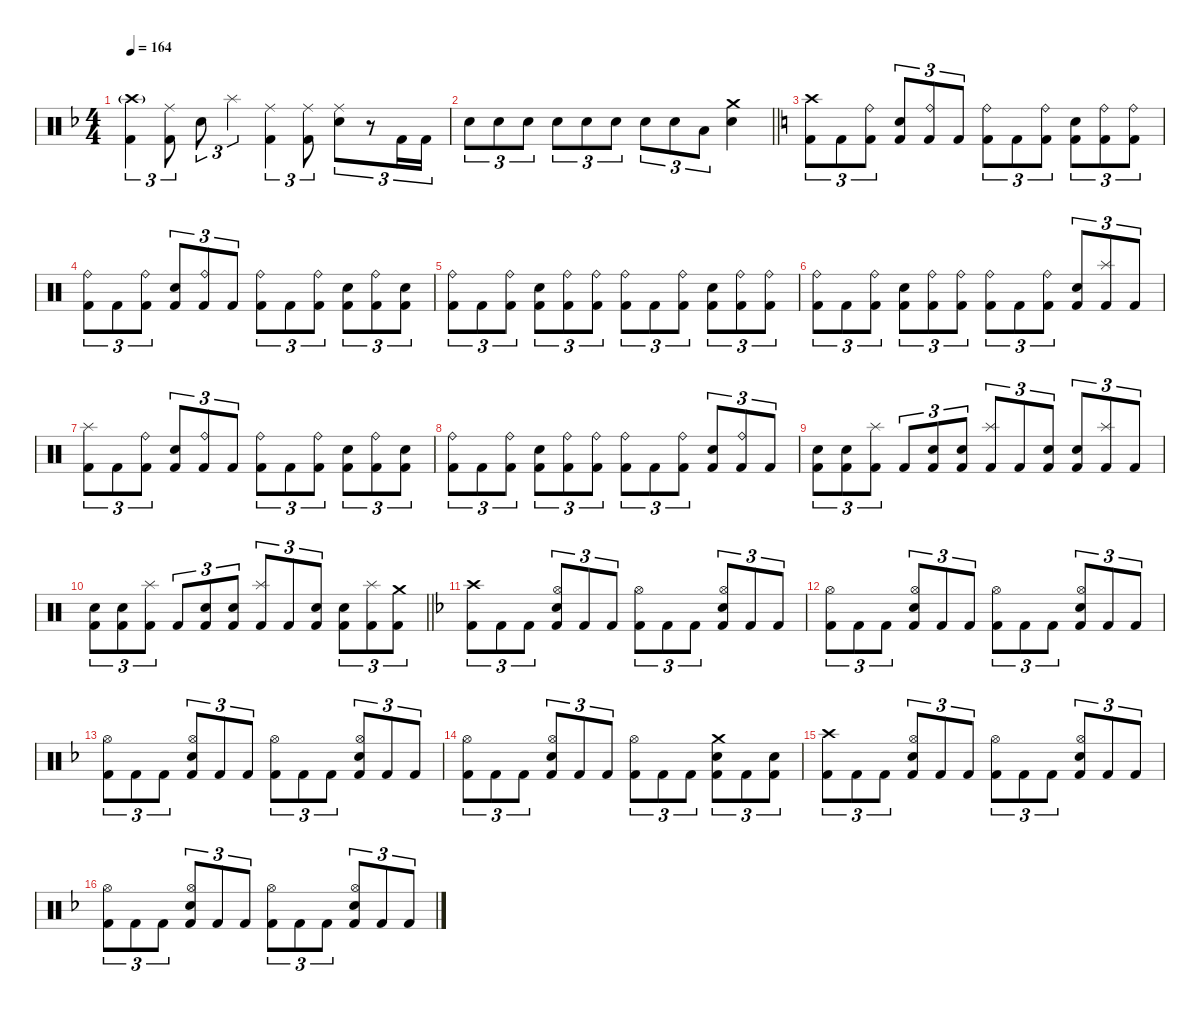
\defaultSystemsLayout 4
\hideDynamics
\bracketExtendMode nobrackets
\singleTrackTrackNamePolicy hidden
\multiTrackTrackNamePolicy hidden
\otherSystemsTrackNameOrientation horizontal
\track ("Drums" "drm.") {defaultSystemsLayout 4 instrument percussion}
\staff {score}
\articulation defaults
\ts (4 4)
\tempo 164
\clef neutral
\ks f
("Kick (hit) 2"{acc forcenatural} "Crash high (hit)"{g acc forcenatural}).4{tu (3 2) dy fff beam Down} ("Kick (hit) 2"{acc forcenatural} "Ride (middle)"{acc forcenatural}).8{tu (3 2) beam Down} "Snare (hit) 2"{acc forcenatural}.8{tu (3 2) beam Down} "Splash (hit)"{acc forcenatural}.4{tu (3 2) dy f beam Down} ("Kick (hit) 2"{acc forcenatural} "Ride (middle)"{acc forcenatural}).4{tu (3 2) dy fff beam Down} ("Kick (hit) 2"{acc forcenatural} "Ride (middle)"{acc forcenatural}).8{tu (3 2) beam Down} ("Snare (hit) 2"{acc forcenatural} "Ride (middle)"{acc forcenatural}).8{tu (3 2) beam Down} r.8{tu (3 2) beam Down} "Kick (hit) 2"{acc forcenatural}.16{tu (3 2) beam Down} "Kick (hit) 2"{acc forcenatural}.16{tu (3 2) beam Down} |
\barLineRight lightlight "Snare (hit) 2"{acc forcenatural}.8{tu (3 2) beam Down} "Snare (hit) 2"{acc forcenatural}.8{tu (3 2) beam Down} "Snare (hit) 2"{acc forcenatural}.8{tu (3 2) beam Down} "Snare (hit) 2"{acc forcenatural}.8{tu (3 2) beam Down} "Snare (hit) 2"{acc forcenatural}.8{tu (3 2) beam Down} "Snare (hit) 2"{acc forcenatural}.8{tu (3 2) beam Down} "Snare (hit) 2"{acc forcenatural}.8{tu (3 2) beam Down} "Snare (hit) 2"{acc forcenatural}.8{tu (3 2) beam Down} "Low Tom (hit)"{acc forcenatural}.8{tu (3 2) beam Down}
("Snare (hit) 2"{acc forcenatural} "Crash medium (hit)"{acc forcenatural}).4{beam Down} |
\ks c
("Kick (hit) 2" "Crash high (hit)").8{tu (3 2) beam Down} "Kick (hit) 2".8{tu (3 2) beam Down} ("Kick (hit) 2" "Ride (bell)").8{tu (3 2) beam Down} ("Kick (hit) 2" "Snare (hit) 2").8{tu (3 2) beam Up} ("Kick (hit) 2" "Ride (bell)").8{tu (3 2) beam Up} "Kick (hit) 2".8{tu (3 2) beam Up} ("Kick (hit) 2" "Ride (bell)").8{tu (3 2) beam Down} "Kick (hit) 2".8{tu (3 2) beam Down} ("Kick (hit) 2" "Ride (bell)").8{tu (3 2) beam Down} ("Kick (hit) 2" "Snare (hit) 2").8{tu (3 2) beam Down} ("Kick (hit) 2" "Ride (bell)").8{tu (3 2) beam Down} ("Kick (hit) 2" "Ride (bell)").8{tu (3 2) beam Down} |
("Kick (hit) 2" "Ride (bell)").8{tu (3 2) beam Down} "Kick (hit) 2".8{tu (3 2) beam Down} ("Kick (hit) 2" "Ride (bell)").8{tu (3 2) beam Down} ("Kick (hit) 2" "Snare (hit) 2").8{tu (3 2) beam Up} ("Kick (hit) 2" "Ride (bell)").8{tu (3 2) beam Up} "Kick (hit) 2".8{tu (3 2) beam Up} ("Kick (hit) 2" "Ride (bell)").8{tu (3 2) beam Down} "Kick (hit) 2".8{tu (3 2) beam Down} ("Kick (hit) 2" "Ride (bell)").8{tu (3 2) beam Down} ("Kick (hit) 2" "Snare (hit) 2").8{tu (3 2) beam Down} ("Kick (hit) 2" "Ride (bell)").8{tu (3 2) beam Down} ("Kick (hit) 2" "Snare (hit) 2").8{tu (3 2) beam Down} |
("Kick (hit) 2" "Ride (bell)").8{tu (3 2) beam Down} "Kick (hit) 2".8{tu (3 2) beam Down} ("Kick (hit) 2" "Ride (bell)").8{tu (3 2) beam Down} ("Kick (hit) 2" "Snare (hit) 2").8{tu (3 2) beam Down} ("Kick (hit) 2" "Ride (bell)").8{tu (3 2) beam Down} ("Kick (hit) 2" "Ride (bell)").8{tu (3 2) beam Down} ("Kick (hit) 2" "Ride (bell)").8{tu (3 2) beam Down} "Kick (hit) 2".8{tu (3 2) beam Down} ("Kick (hit) 2" "Ride (bell)").8{tu (3 2) beam Down} ("Kick (hit) 2" "Snare (hit) 2").8{tu (3 2) beam Down} ("Kick (hit) 2" "Ride (bell)").8{tu (3 2) beam Down} ("Kick (hit) 2" "Ride (bell)").8{tu (3 2) beam Down} |
("Kick (hit) 2" "Ride (bell)").8{tu (3 2) beam Down} "Kick (hit) 2".8{tu (3 2) beam Down} ("Kick (hit) 2" "Ride (bell)").8{tu (3 2) beam Down} ("Kick (hit) 2" "Snare (hit) 2").8{tu (3 2) beam Down} ("Kick (hit) 2" "Ride (bell)").8{tu (3 2) beam Down} ("Kick (hit) 2" "Ride (bell)").8{tu (3 2) beam Down} ("Kick (hit) 2" "Ride (bell)").8{tu (3 2) beam Down} "Kick (hit) 2".8{tu (3 2) beam Down} ("Kick (hit) 2" "Ride (bell)").8{tu (3 2) beam Down} ("Kick (hit) 2" "Snare (hit) 2").8{tu (3 2) beam Up} ("Kick (hit) 2" "Splash (hit)").8{tu (3 2) beam Up} "Kick (hit) 2".8{tu (3 2) beam Up} |
("Kick (hit) 2" "Splash (hit)").8{tu (3 2) beam Down} "Kick (hit) 2".8{tu (3 2) beam Down} ("Kick (hit) 2" "Ride (bell)").8{tu (3 2) beam Down} ("Kick (hit) 2" "Snare (hit) 2").8{tu (3 2) beam Up} ("Kick (hit) 2" "Ride (bell)").8{tu (3 2) beam Up} "Kick (hit) 2".8{tu (3 2) beam Up} ("Kick (hit) 2" "Ride (bell)").8{tu (3 2) beam Down} "Kick (hit) 2".8{tu (3 2) beam Down} ("Kick (hit) 2" "Ride (bell)").8{tu (3 2) beam Down} ("Kick (hit) 2" "Snare (hit) 2").8{tu (3 2) beam Down} ("Kick (hit) 2" "Ride (bell)").8{tu (3 2) beam Down} ("Kick (hit) 2" "Snare (hit) 2").8{tu (3 2) beam Down} |
("Kick (hit) 2" "Ride (bell)").8{tu (3 2) beam Down} "Kick (hit) 2".8{tu (3 2) beam Down} ("Kick (hit) 2" "Ride (bell)").8{tu (3 2) beam Down} ("Kick (hit) 2" "Snare (hit) 2").8{tu (3 2) beam Down} ("Kick (hit) 2" "Ride (bell)").8{tu (3 2) beam Down} ("Kick (hit) 2" "Ride (bell)").8{tu (3 2) beam Down} ("Kick (hit) 2" "Ride (bell)").8{tu (3 2) beam Down} "Kick (hit) 2".8{tu (3 2) beam Down} ("Kick (hit) 2" "Ride (bell)").8{tu (3 2) beam Down} ("Kick (hit) 2" "Snare (hit) 2").8{tu (3 2) beam Up} ("Kick (hit) 2" "Ride (bell)").8{tu (3 2) beam Up} "Kick (hit) 2".8{tu (3 2) beam Up} |
("Kick (hit) 2" "Snare (hit) 2").8{tu (3 2) beam Down} ("Kick (hit) 2" "Snare (hit) 2").8{tu (3 2) beam Down} ("Kick (hit) 2" "Splash (hit)").8{tu (3 2) beam Down} "Kick (hit) 2".8{tu (3 2) beam Up} ("Kick (hit) 2" "Snare (hit) 2").8{tu (3 2) beam Up} ("Kick (hit) 2" "Snare (hit) 2").8{tu (3 2) beam Up} ("Kick (hit) 2" "Splash (hit)").8{tu (3 2) beam Up} "Kick (hit) 2".8{tu (3 2) beam Up} ("Kick (hit) 2" "Snare (hit) 2").8{tu (3 2) beam Up} ("Kick (hit) 2" "Snare (hit) 2").8{tu (3 2) beam Up} ("Kick (hit) 2" "Splash (hit)").8{tu (3 2) beam Up} "Kick (hit) 2".8{tu (3 2) beam Up} |
\barLineRight lightlight
("Kick (hit) 2" "Snare (hit) 2").8{tu (3 2) beam Down} ("Kick (hit) 2" "Snare (hit) 2").8{tu (3 2) beam Down} ("Kick (hit) 2" "Splash (hit)").8{tu (3 2) beam Down} "Kick (hit) 2".8{tu (3 2) beam Up} ("Kick (hit) 2" "Snare (hit) 2").8{tu (3 2) beam Up} ("Kick (hit) 2" "Snare (hit) 2").8{tu (3 2) beam Up} ("Kick (hit) 2" "Splash (hit)").8{tu (3 2) beam Up} "Kick (hit) 2".8{tu (3 2) beam Up} ("Kick (hit) 2" "Snare (hit) 2").8{tu (3 2) beam Up} ("Kick (hit) 2" "Snare (hit) 2").8{tu (3 2) beam Down} ("Kick (hit) 2" "Splash (hit)").8{tu (3 2) beam Down} ("Kick (hit) 2" "Crash medium (hit)").8{tu (3 2) beam Down} |
\ks f
("Kick (hit) 2"{acc forcenatural} "Crash high (hit)"{acc forcenatural}).8{tu (3 2) beam Down} "Kick (hit) 2"{acc forcenatural}.8{tu (3 2) beam Down} "Kick (hit) 2"{acc forcenatural}.8{tu (3 2) beam Down} ("Kick (hit) 2"{acc forcenatural} "Snare (hit) 2"{acc forcenatural} "Hi-Hat (open)"{acc forcenatural}).8{tu (3 2) beam Up} "Kick (hit) 2"{acc forcenatural}.8{tu (3 2) beam Up} "Kick (hit) 2"{acc forcenatural}.8{tu (3 2) beam Up} ("Kick (hit) 2"{acc forcenatural} "Hi-Hat (open)"{acc forcenatural}).8{tu (3 2) beam Down} "Kick (hit) 2"{acc forcenatural}.8{tu (3 2) beam Down} "Kick (hit) 2"{acc forcenatural}.8{tu (3 2) beam Down} ("Kick (hit) 2"{acc forcenatural} "Snare (hit) 2"{acc forcenatural} "Hi-Hat (open)"{acc forcenatural}).8{tu (3 2) beam Up} "Kick (hit) 2"{acc forcenatural}.8{tu (3 2) beam Up} "Kick (hit) 2"{acc forcenatural}.8{tu (3 2) beam Up} |
("Kick (hit) 2"{acc forcenatural} "Hi-Hat (open)"{acc forcenatural}).8{tu (3 2) beam Down} "Kick (hit) 2"{acc forcenatural}.8{tu (3 2) beam Down} "Kick (hit) 2"{acc forcenatural}.8{tu (3 2) beam Down} ("Kick (hit) 2"{acc forcenatural} "Snare (hit) 2"{acc forcenatural} "Hi-Hat (open)"{acc forcenatural}).8{tu (3 2) beam Up} "Kick (hit) 2"{acc forcenatural}.8{tu (3 2) beam Up} "Kick (hit) 2"{acc forcenatural}.8{tu (3 2) beam Up} ("Kick (hit) 2"{acc forcenatural} "Hi-Hat (open)"{acc forcenatural}).8{tu (3 2) beam Down} "Kick (hit) 2"{acc forcenatural}.8{tu (3 2) beam Down} "Kick (hit) 2"{acc forcenatural}.8{tu (3 2) beam Down} ("Kick (hit) 2"{acc forcenatural} "Snare (hit) 2"{acc forcenatural} "Hi-Hat (open)"{acc forcenatural}).8{tu (3 2) beam Up} "Kick (hit) 2"{acc forcenatural}.8{tu (3 2) beam Up} "Kick (hit) 2"{acc forcenatural}.8{tu (3 2) beam Up} |
("Kick (hit) 2"{acc forcenatural} "Hi-Hat (open)"{acc forcenatural}).8{tu (3 2) beam Down} "Kick (hit) 2"{acc forcenatural}.8{tu (3 2) beam Down} "Kick (hit) 2"{acc forcenatural}.8{tu (3 2) beam Down} ("Kick (hit) 2"{acc forcenatural} "Snare (hit) 2"{acc forcenatural} "Hi-Hat (open)"{acc forcenatural}).8{tu (3 2) beam Up} "Kick (hit) 2"{acc forcenatural}.8{tu (3 2) beam Up} "Kick (hit) 2"{acc forcenatural}.8{tu (3 2) beam Up} ("Kick (hit) 2"{acc forcenatural} "Hi-Hat (open)"{acc forcenatural}).8{tu (3 2) beam Down} "Kick (hit) 2"{acc forcenatural}.8{tu (3 2) beam Down} "Kick (hit) 2"{acc forcenatural}.8{tu (3 2) beam Down} ("Kick (hit) 2"{acc forcenatural} "Snare (hit) 2"{acc forcenatural} "Hi-Hat (open)"{acc forcenatural}).8{tu (3 2) beam Up} "Kick (hit) 2"{acc forcenatural}.8{tu (3 2) beam Up} "Kick (hit) 2"{acc forcenatural}.8{tu (3 2) beam Up} |
("Kick (hit) 2"{acc forcenatural} "Hi-Hat (open)"{acc forcenatural}).8{tu (3 2) beam Down} "Kick (hit) 2"{acc forcenatural}.8{tu (3 2) beam Down} "Kick (hit) 2"{acc forcenatural}.8{tu (3 2) beam Down} ("Kick (hit) 2"{acc forcenatural} "Snare (hit) 2"{acc forcenatural} "Hi-Hat (open)"{acc forcenatural}).8{tu (3 2) beam Up} "Kick (hit) 2"{acc forcenatural}.8{tu (3 2) beam Up} "Kick (hit) 2"{acc forcenatural}.8{tu (3 2) beam Up} ("Kick (hit) 2"{acc forcenatural} "Hi-Hat (open)"{acc forcenatural}).8{tu (3 2) beam Down} "Kick (hit) 2"{acc forcenatural}.8{tu (3 2) beam Down} "Kick (hit) 2"{acc forcenatural}.8{tu (3 2) beam Down} ("Kick (hit) 2"{acc forcenatural} "Snare (hit) 2"{acc forcenatural} "Crash medium (hit)"{acc forcenatural}).8{tu (3 2) beam Down} "Kick (hit) 2"{acc forcenatural}.8{tu (3 2) beam Down} ("Kick (hit) 2"{acc forcenatural} "Snare (hit) 2"{acc forcenatural}).8{tu (3 2) beam Down} |
("Kick (hit) 2"{acc forcenatural} "Crash high (hit)"{acc forcenatural}).8{tu (3 2) beam Down} "Kick (hit) 2"{acc forcenatural}.8{tu (3 2) beam Down} "Kick (hit) 2"{acc forcenatural}.8{tu (3 2) beam Down} ("Kick (hit) 2"{acc forcenatural} "Snare (hit) 2"{acc forcenatural} "Hi-Hat (open)"{acc forcenatural}).8{tu (3 2) beam Up} "Kick (hit) 2"{acc forcenatural}.8{tu (3 2) beam Up} "Kick (hit) 2"{acc forcenatural}.8{tu (3 2) beam Up} ("Kick (hit) 2"{acc forcenatural} "Hi-Hat (open)"{acc forcenatural}).8{tu (3 2) beam Down} "Kick (hit) 2"{acc forcenatural}.8{tu (3 2) beam Down} "Kick (hit) 2"{acc forcenatural}.8{tu (3 2) beam Down} ("Kick (hit) 2"{acc forcenatural} "Snare (hit) 2"{acc forcenatural} "Hi-Hat (open)"{acc forcenatural}).8{tu (3 2) beam Up} "Kick (hit) 2"{acc forcenatural}.8{tu (3 2) beam Up} "Kick (hit) 2"{acc forcenatural}.8{tu (3 2) beam Up} |
("Kick (hit) 2"{acc forcenatural} "Hi-Hat (open)"{acc forcenatural}).8{tu (3 2) beam Down} "Kick (hit) 2"{acc forcenatural}.8{tu (3 2) beam Down} "Kick (hit) 2"{acc forcenatural}.8{tu (3 2) beam Down} ("Kick (hit) 2"{acc forcenatural} "Snare (hit) 2"{acc forcenatural} "Hi-Hat (open)"{acc forcenatural}).8{tu (3 2) beam Up} "Kick (hit) 2"{acc forcenatural}.8{tu (3 2) beam Up} "Kick (hit) 2"{acc forcenatural}.8{tu (3 2) beam Up} ("Kick (hit) 2"{acc forcenatural} "Hi-Hat (open)"{acc forcenatural}).8{tu (3 2) beam Down} "Kick (hit) 2"{acc forcenatural}.8{tu (3 2) beam Down} "Kick (hit) 2"{acc forcenatural}.8{tu (3 2) beam Down} ("Kick (hit) 2"{acc forcenatural} "Snare (hit) 2"{acc forcenatural} "Hi-Hat (open)"{acc forcenatural}).8{tu (3 2) beam Up} "Kick (hit) 2"{acc forcenatural}.8{tu (3 2) beam Up} "Kick (hit) 2"{acc forcenatural}.8{tu (3 2) beam Up}
